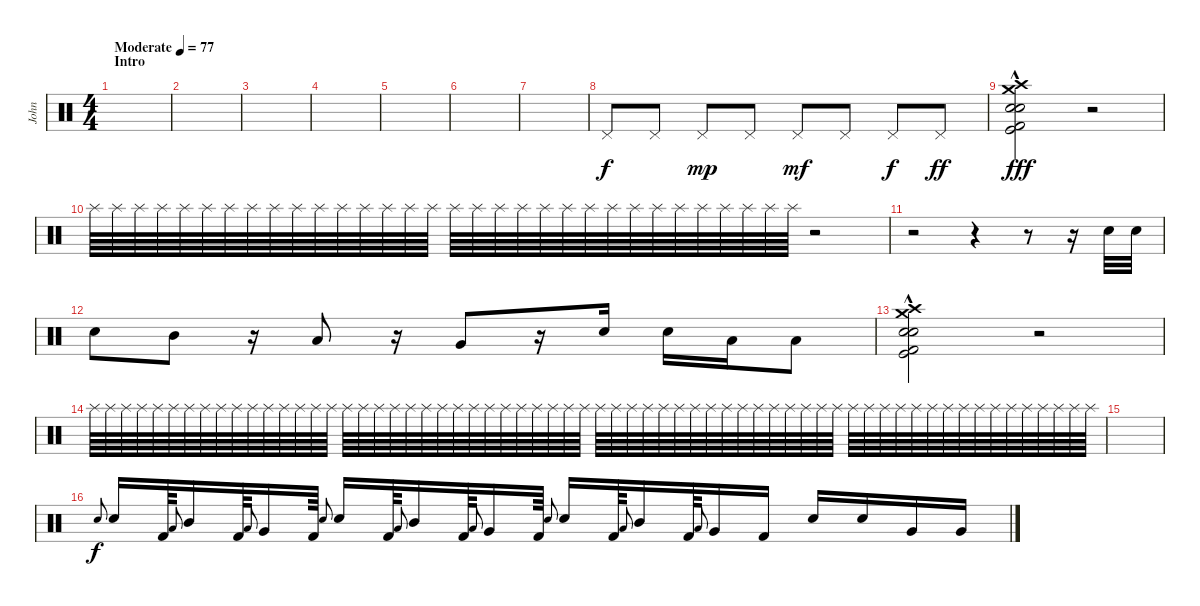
\track ("John" "John") {instrument percussion}
\staff {score}
\articulation defaults
\ts (4 4)
\section ("" "Intro")
\tempo (77 "Moderate")
\clef neutral
\ks c
|
|
|
|
|
|
|
"Pedal Hi-Hat (hit)".8 "Pedal Hi-Hat (hit)".8 "Pedal Hi-Hat (hit)".8{dy mp} "Pedal Hi-Hat (hit)".8 "Pedal Hi-Hat (hit)".8{dy mf} "Pedal Hi-Hat (hit)".8 "Pedal Hi-Hat (hit)".8{dy f} "Pedal Hi-Hat (hit)".8{dy ff} |
("Crash medium (hit)"{hac} "Crash high (hit)"{hac} "Kick (hit)"{hac} "Snare (hit) 2"{hac} "Electric Snare (hit)"{hac} "Kick (hit) 2"{hac}).2{dy fff} r.2{volume 0} |
"Splash (hit)".64{volume 16} "Splash (hit)".64 "Splash (hit)".64 "Splash (hit)".64 "Splash (hit)".64 "Splash (hit)".64 "Splash (hit)".64 "Splash (hit)".64 "Splash (hit)".64 "Splash (hit)".64 "Splash (hit)".64 "Splash (hit)".64 "Splash (hit)".64 "Splash (hit)".64 "Splash (hit)".64 "Splash (hit)".64 "Splash (hit)".64 "Splash (hit)".64 "Splash (hit)".64 "Splash (hit)".64 "Splash (hit)".64 "Splash (hit)".64 "Splash (hit)".64 "Splash (hit)".64 "Splash (hit)".64 "Splash (hit)".64 "Splash (hit)".64 "Splash (hit)".64 "Splash (hit)".64 "Splash (hit)".64 "Splash (hit)".64 "Splash (hit)".64 r.2 |
r.2 r.4 r.8 r.16 "Electric Snare (hit)".32 "Electric Snare (hit)".32 |
"Electric Snare (hit)".8 "Mid Tom (hit)".8 r.16 "Low Tom (hit)".8 r.16 "Very Low Tom (hit)".8 r.16 "Electric Snare (hit)".16 "Electric Snare (hit)".16 "Low Tom (hit)".16 "Low Tom (hit)".8 |
("Crash medium (hit)"{hac} "Crash high (hit)"{hac} "Kick (hit)"{hac} "Snare (hit) 2"{hac} "Electric Snare (hit)"{hac} "Kick (hit) 2"{hac}).2 r.2{volume 0} |
"Splash (hit)".64{volume 16} "Splash (hit)".64 "Splash (hit)".64 "Splash (hit)".64 "Splash (hit)".64 "Splash (hit)".64 "Splash (hit)".64 "Splash (hit)".64 "Splash (hit)".64 "Splash (hit)".64 "Splash (hit)".64 "Splash (hit)".64 "Splash (hit)".64 "Splash (hit)".64 "Splash (hit)".64 "Splash (hit)".64 "Splash (hit)".64 "Splash (hit)".64 "Splash (hit)".64 "Splash (hit)".64 "Splash (hit)".64 "Splash (hit)".64 "Splash (hit)".64 "Splash (hit)".64 "Splash (hit)".64 "Splash (hit)".64 "Splash (hit)".64 "Splash (hit)".64 "Splash (hit)".64 "Splash (hit)".64 "Splash (hit)".64 "Splash (hit)".64{volume 16} "Splash (hit)".64 "Splash (hit)".64 "Splash (hit)".64 "Splash (hit)".64 "Splash (hit)".64 "Splash (hit)".64 "Splash (hit)".64 "Splash (hit)".64 "Splash (hit)".64 "Splash (hit)".64 "Splash (hit)".64 "Splash (hit)".64 "Splash (hit)".64 "Splash (hit)".64 "Splash (hit)".64 "Splash (hit)".64 "Splash (hit)".64 "Splash (hit)".64 "Splash (hit)".64 "Splash (hit)".64 "Splash (hit)".64 "Splash (hit)".64 "Splash (hit)".64 "Splash (hit)".64 "Splash (hit)".64 "Splash (hit)".64 "Splash (hit)".64 "Splash (hit)".64 "Splash (hit)".64 "Splash (hit)".64 "Splash (hit)".64 "Splash (hit)".64 |
|
"Snare (hit) 2".8{gr onbeat dy f} "Electric Snare (hit)".16 "Kick (hit) 2".64 "Low Tom (hit)".8{gr onbeat} "Mid Tom (hit)".16 "Kick (hit) 2".64 "Low Floor Tom (hit)".8{gr onbeat} "Very Low Tom (hit)".16 "Kick (hit) 2".64 "Snare (hit) 2".8{gr onbeat} "Electric Snare (hit)".16 "Kick (hit) 2".64 "Low Tom (hit)".8{gr onbeat} "Mid Tom (hit)".16 "Kick (hit) 2".64 "Low Floor Tom (hit)".8{gr onbeat} "Very Low Tom (hit)".16 "Kick (hit) 2".64 "Snare (hit) 2".8{gr onbeat} "Electric Snare (hit)".16 "Kick (hit) 2".64 "Low Tom (hit)".8{gr onbeat} "Mid Tom (hit)".16 "Kick (hit) 2".64 "Low Floor Tom (hit)".8{gr onbeat} "Very Low Tom (hit)".16 "Kick (hit) 2".16 "Electric Snare (hit)".16 "Electric Snare (hit)".16 "Very Low Tom (hit)".16 "Very Low Tom (hit)".16
